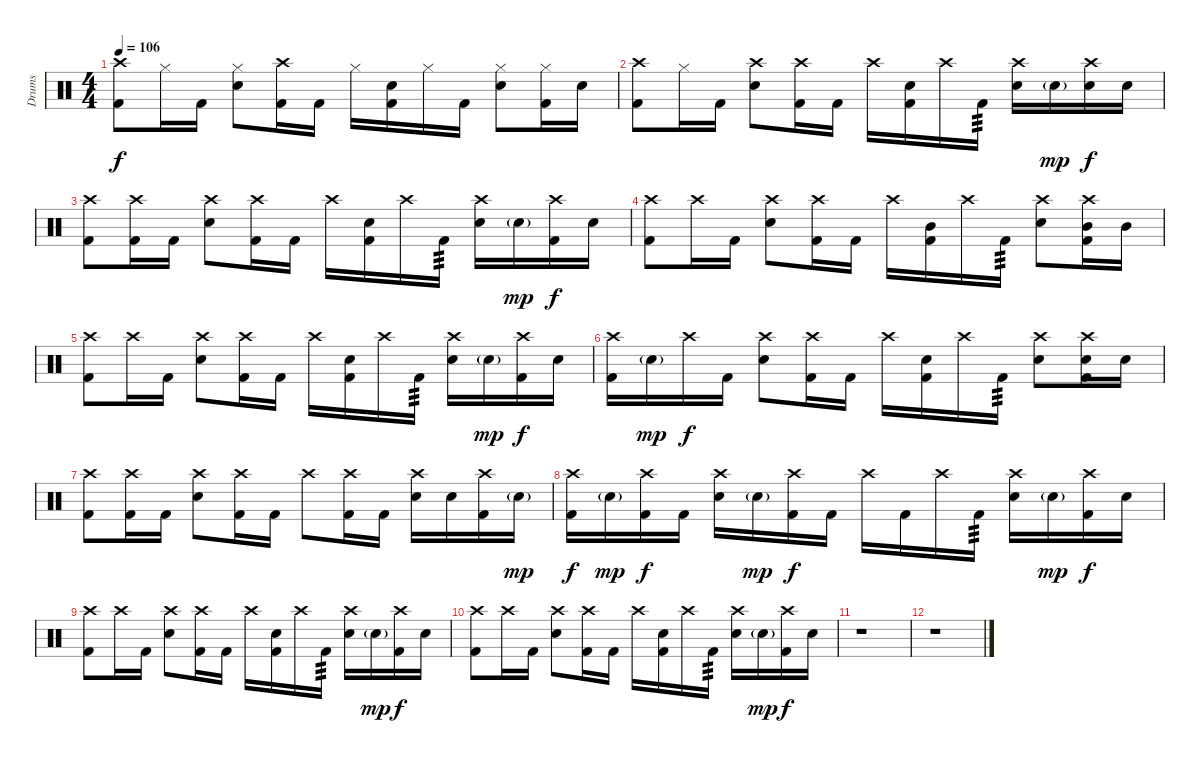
\track ("Drums" "Drums") {instrument percussion}
\staff {score}
\articulation defaults
\ts (4 4)
\tempo 106
\clef neutral
\ks c
("Crash high (hit)" "Kick (hit) 2").8{dy f} "Hi-Hat (closed)".16 "Kick (hit) 2".16 ("Hi-Hat (closed)" "Electric Snare (hit)").8 ("Crash high (hit)" "Kick (hit) 2").16 "Kick (hit) 2".16 "Hi-Hat (closed)".16 ("Electric Snare (hit)" "Kick (hit) 2").16 "Hi-Hat (closed)".16 "Kick (hit) 2".16 ("Hi-Hat (closed)" "Electric Snare (hit)").8 ("Hi-Hat (closed)" "Kick (hit) 2").16 "Electric Snare (hit)".16 |
("Crash high (hit)" "Kick (hit) 2").8 "Hi-Hat (closed)".16 "Kick (hit) 2".16 ("Crash high (hit)" "Electric Snare (hit)").8 ("Crash high (hit)" "Kick (hit) 2").16 "Kick (hit) 2".16 "Crash high (hit)".16 ("Electric Snare (hit)" "Kick (hit) 2").16 "Crash high (hit)".16 "Kick (hit) 2".16{tp 3} ("Crash high (hit)" "Electric Snare (hit)").16 "Electric Snare (hit)"{g}.16{dy mp} ("Crash high (hit)" "Electric Snare (hit)").16{dy f} "Electric Snare (hit)".16 |
("Crash high (hit)" "Kick (hit) 2").8 ("Crash high (hit)" "Kick (hit) 2").16 "Kick (hit) 2".16 ("Crash high (hit)" "Electric Snare (hit)").8 ("Crash high (hit)" "Kick (hit) 2").16 "Kick (hit) 2".16 "Crash high (hit)".16 ("Electric Snare (hit)" "Kick (hit) 2").16 "Crash high (hit)".16 "Kick (hit) 2".16{tp 3} ("Crash high (hit)" "Electric Snare (hit)").16 "Electric Snare (hit)"{g}.16{dy mp} ("Crash high (hit)" "Kick (hit) 2").16{dy f} "Electric Snare (hit)".16 |
("Crash high (hit)" "Kick (hit) 2").8 "Crash high (hit)".16 "Kick (hit) 2".16 ("Crash high (hit)" "Electric Snare (hit)").8 ("Crash high (hit)" "Kick (hit) 2").16 "Kick (hit) 2".16 "Crash high (hit)".16 ("Mid Tom (hit)" "Kick (hit) 2").16 "Crash high (hit)".16 "Kick (hit) 2".16{tp 3} ("Crash high (hit)" "Electric Snare (hit)").8 ("Crash high (hit)" "Mid Tom (hit)" "Kick (hit) 2").16 "Mid Tom (hit)".16 |
("Crash high (hit)" "Kick (hit) 2").8 "Crash high (hit)".16 "Kick (hit) 2".16 ("Crash high (hit)" "Electric Snare (hit)").8 ("Crash high (hit)" "Kick (hit) 2").16 "Kick (hit) 2".16 "Crash high (hit)".16 ("Electric Snare (hit)" "Kick (hit) 2").16 "Crash high (hit)".16 "Kick (hit) 2".16{tp 3} ("Crash high (hit)" "Electric Snare (hit)").16 "Electric Snare (hit)"{g}.16{dy mp} ("Crash high (hit)" "Kick (hit) 2").16{dy f} "Electric Snare (hit)".16 |
("Crash high (hit)" "Kick (hit) 2").16 "Electric Snare (hit)"{g}.16{dy mp} "Crash high (hit)".16{dy f} "Kick (hit) 2".16 ("Crash high (hit)" "Electric Snare (hit)").8 ("Crash high (hit)" "Kick (hit) 2").16 "Kick (hit) 2".16 "Crash high (hit)".16 ("Electric Snare (hit)" "Kick (hit) 2").16 "Crash high (hit)".16 "Kick (hit) 2".16{tp 3} ("Crash high (hit)" "Electric Snare (hit)").8 ("Crash high (hit)" "Electric Snare (hit)" "Kick (hit) 2").16 "Electric Snare (hit)".16 |
("Crash high (hit)" "Kick (hit) 2").8 ("Crash high (hit)" "Kick (hit) 2").16 "Kick (hit) 2".16 ("Crash high (hit)" "Electric Snare (hit)").8 ("Crash high (hit)" "Kick (hit) 2").16 "Kick (hit) 2".16 "Crash high (hit)".8 ("Crash high (hit)" "Kick (hit) 2").16 "Kick (hit) 2".16 ("Crash high (hit)" "Electric Snare (hit)").16 "Electric Snare (hit)".16 ("Crash high (hit)" "Kick (hit) 2").16 "Electric Snare (hit)"{g}.16{dy mp} |
("Crash high (hit)" "Kick (hit) 2").16{dy f} "Electric Snare (hit)"{g}.16{dy mp} ("Crash high (hit)" "Kick (hit) 2").16{dy f} "Kick (hit) 2".16 ("Crash high (hit)" "Electric Snare (hit)").16 "Electric Snare (hit)"{g}.16{dy mp} ("Crash high (hit)" "Kick (hit) 2").16{dy f} "Kick (hit) 2".16 "Crash high (hit)".16 "Kick (hit) 2".16 "Crash high (hit)".16 "Kick (hit) 2".16{tp 3} ("Crash high (hit)" "Electric Snare (hit)").16 "Electric Snare (hit)"{g}.16{dy mp} ("Crash high (hit)" "Kick (hit) 2").16{dy f} "Electric Snare (hit)".16 |
("Crash high (hit)" "Kick (hit) 2").8 "Crash high (hit)".16 "Kick (hit) 2".16 ("Crash high (hit)" "Electric Snare (hit)").8 ("Crash high (hit)" "Kick (hit) 2").16 "Kick (hit) 2".16 "Crash high (hit)".16 ("Electric Snare (hit)" "Kick (hit) 2").16 "Crash high (hit)".16 "Kick (hit) 2".16{tp 3} ("Crash high (hit)" "Electric Snare (hit)").16 "Electric Snare (hit)"{g}.16{dy mp} ("Crash high (hit)" "Kick (hit) 2").16{dy f} "Electric Snare (hit)".16 |
("Crash high (hit)" "Kick (hit) 2").8 "Crash high (hit)".16 "Kick (hit) 2".16 ("Crash high (hit)" "Electric Snare (hit)").8 ("Crash high (hit)" "Kick (hit) 2").16 "Kick (hit) 2".16 "Crash high (hit)".16 ("Electric Snare (hit)" "Kick (hit) 2").16 "Crash high (hit)".16 "Kick (hit) 2".16{tp 3} ("Crash high (hit)" "Electric Snare (hit)").16 "Electric Snare (hit)"{g}.16{dy mp} ("Crash high (hit)" "Kick (hit) 2").16{dy f} "Electric Snare (hit)".16 |
r.1 |
r.1
